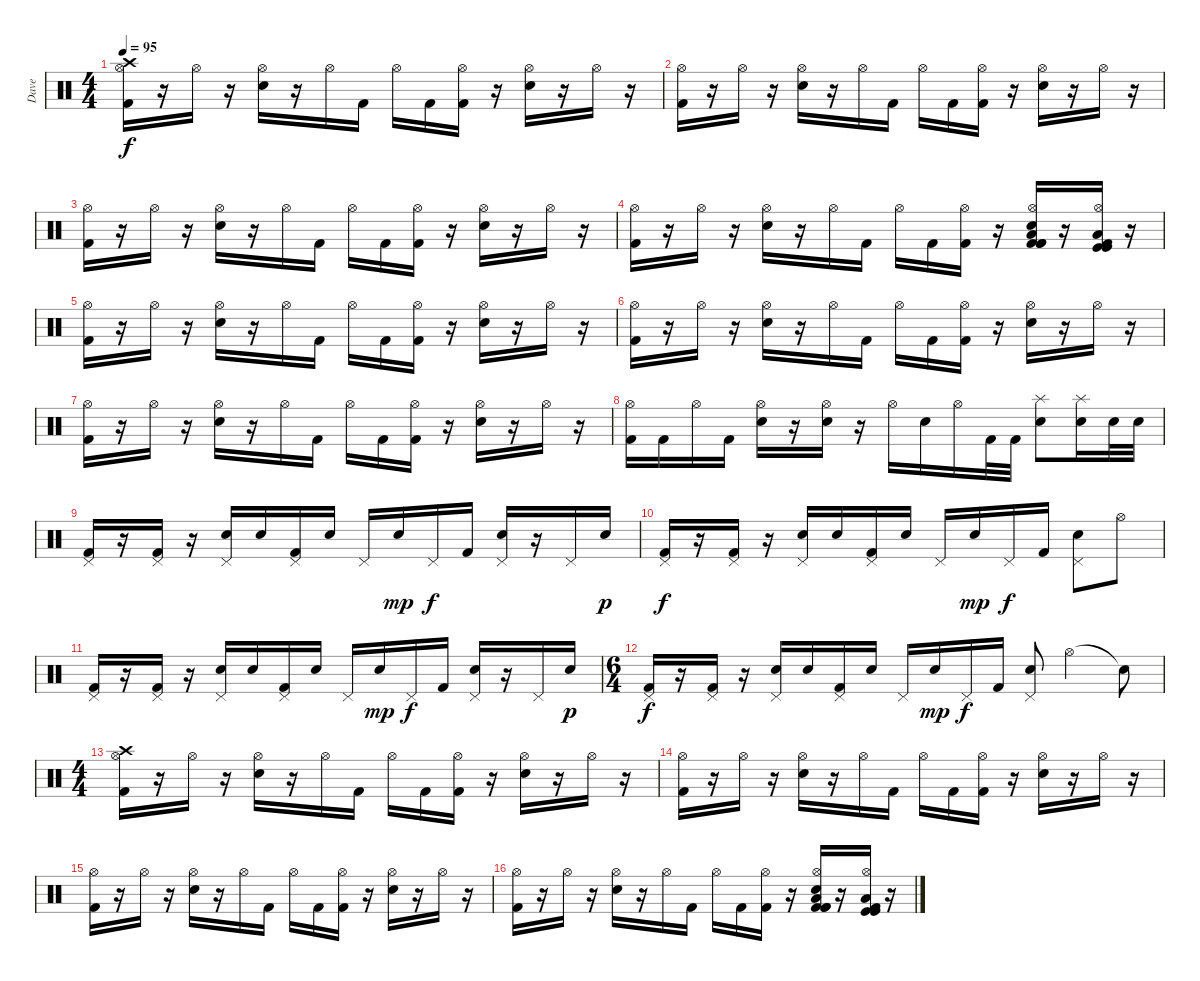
\track ("Dave" "Dave") {instrument percussion}
\staff {score}
\articulation defaults
\ts (4 4)
\tempo 95
\clef neutral
\ks c
("Kick (hit) 2" "Hi-Hat (open)" "Crash high (hit)").16{dy f} r.16 "Hi-Hat (open)".16 r.16 ("Snare (hit) 2" "Hi-Hat (open)").16 r.16 "Hi-Hat (open)".16 "Kick (hit) 2".16 "Hi-Hat (open)".16 "Kick (hit) 2".16 ("Kick (hit) 2" "Hi-Hat (open)").16 r.16 ("Snare (hit) 2" "Hi-Hat (open)").16 r.16 "Hi-Hat (open)".16 r.16 |
("Kick (hit) 2" "Hi-Hat (open)").16 r.16 "Hi-Hat (open)".16 r.16 ("Snare (hit) 2" "Hi-Hat (open)").16 r.16 "Hi-Hat (open)".16 "Kick (hit) 2".16 "Hi-Hat (open)".16 "Kick (hit) 2".16 ("Kick (hit) 2" "Hi-Hat (open)").16 r.16 ("Snare (hit) 2" "Hi-Hat (open)").16 r.16 "Hi-Hat (open)".16 r.16 |
("Kick (hit) 2" "Hi-Hat (open)").16 r.16 "Hi-Hat (open)".16 r.16 ("Snare (hit) 2" "Hi-Hat (open)").16 r.16 "Hi-Hat (open)".16 "Kick (hit) 2".16 "Hi-Hat (open)".16 "Kick (hit) 2".16 ("Kick (hit) 2" "Hi-Hat (open)").16 r.16 ("Snare (hit) 2" "Hi-Hat (open)").16 r.16 "Hi-Hat (open)".16 r.16 |
("Kick (hit) 2" "Hi-Hat (open)").16 r.16 "Hi-Hat (open)".16 r.16 ("Snare (hit) 2" "Hi-Hat (open)").16 r.16 "Hi-Hat (open)".16 "Kick (hit) 2".16 "Hi-Hat (open)".16 "Kick (hit) 2".16 ("Kick (hit) 2" "Hi-Hat (open)").16 r.16 ("Snare (hit) 2" "Hi-Hat (open)" "Low Tom (hit)" "Kick (hit) 2" "Kick (hit) 2" "Kick (hit) 2").16 r.16 ("Hi-Hat (open)" "Low Tom (hit)" "Kick (hit)" "Kick (hit)" "Kick (hit) 2").16 r.16 |
("Kick (hit) 2" "Hi-Hat (open)").16 r.16 "Hi-Hat (open)".16 r.16 ("Snare (hit) 2" "Hi-Hat (open)").16 r.16 "Hi-Hat (open)".16 "Kick (hit) 2".16 "Hi-Hat (open)".16 "Kick (hit) 2".16 ("Kick (hit) 2" "Hi-Hat (open)").16 r.16 ("Snare (hit) 2" "Hi-Hat (open)").16 r.16 "Hi-Hat (open)".16 r.16 |
("Kick (hit) 2" "Hi-Hat (open)").16 r.16 "Hi-Hat (open)".16 r.16 ("Snare (hit) 2" "Hi-Hat (open)").16 r.16 "Hi-Hat (open)".16 "Kick (hit) 2".16 "Hi-Hat (open)".16 "Kick (hit) 2".16 ("Kick (hit) 2" "Hi-Hat (open)").16 r.16 ("Snare (hit) 2" "Hi-Hat (open)").16 r.16 "Hi-Hat (open)".16 r.16 |
("Kick (hit) 2" "Hi-Hat (open)").16 r.16 "Hi-Hat (open)".16 r.16 ("Snare (hit) 2" "Hi-Hat (open)").16 r.16 "Hi-Hat (open)".16 "Kick (hit) 2".16 "Hi-Hat (open)".16 "Kick (hit) 2".16 ("Kick (hit) 2" "Hi-Hat (open)").16 r.16 ("Snare (hit) 2" "Hi-Hat (open)").16 r.16 "Hi-Hat (open)".16 r.16 |
("Kick (hit) 2" "Hi-Hat (open)").16 "Kick (hit) 2".16 "Hi-Hat (open)".16 "Kick (hit) 2".16 ("Snare (hit) 2" "Hi-Hat (open)").16 r.16 ("Snare (hit) 2" "Hi-Hat (open)").16 r.16 "Hi-Hat (open)".16 "Snare (hit) 2".16 "Hi-Hat (open)".16 "Kick (hit) 2".32 "Kick (hit) 2".32 ("Snare (hit) 2" "Splash (hit)").8 ("Snare (hit) 2" "Splash (hit)").16 "Snare (hit) 2".32 "Snare (hit) 2".32 |
("Kick (hit) 2" "Pedal Hi-Hat (hit)").16 r.16 ("Kick (hit) 2" "Pedal Hi-Hat (hit)").16 r.16 ("Snare (hit) 2" "Pedal Hi-Hat (hit)").16 "Snare (hit) 2".16 ("Kick (hit) 2" "Pedal Hi-Hat (hit)").16 "Snare (hit) 2".16 "Pedal Hi-Hat (hit)".16 "Snare (hit) 2".16{dy mp} "Pedal Hi-Hat (hit)".16{dy f} "Kick (hit) 2".16 ("Snare (hit) 2" "Pedal Hi-Hat (hit)").16 r.16 "Pedal Hi-Hat (hit)".16 "Snare (hit) 2".16{dy p} |
("Kick (hit) 2" "Pedal Hi-Hat (hit)").16{dy f} r.16 ("Kick (hit) 2" "Pedal Hi-Hat (hit)").16 r.16 ("Snare (hit) 2" "Pedal Hi-Hat (hit)").16 "Snare (hit) 2".16 ("Kick (hit) 2" "Pedal Hi-Hat (hit)").16 "Snare (hit) 2".16 "Pedal Hi-Hat (hit)".16 "Snare (hit) 2".16{dy mp} "Pedal Hi-Hat (hit)".16{dy f} "Kick (hit) 2".16 ("Snare (hit) 2" "Pedal Hi-Hat (hit)").8 "Hi-Hat (open)".8 |
("Kick (hit) 2" "Pedal Hi-Hat (hit)").16 r.16 ("Kick (hit) 2" "Pedal Hi-Hat (hit)").16 r.16 ("Snare (hit) 2" "Pedal Hi-Hat (hit)").16 "Snare (hit) 2".16 ("Kick (hit) 2" "Pedal Hi-Hat (hit)").16 "Snare (hit) 2".16 "Pedal Hi-Hat (hit)".16 "Snare (hit) 2".16{dy mp} "Pedal Hi-Hat (hit)".16{dy f} "Kick (hit) 2".16 ("Snare (hit) 2" "Pedal Hi-Hat (hit)").16 r.16 "Pedal Hi-Hat (hit)".16 "Snare (hit) 2".16{dy p} |
\ts (6 4)
("Kick (hit) 2" "Pedal Hi-Hat (hit)").16{dy f} r.16 ("Kick (hit) 2" "Pedal Hi-Hat (hit)").16 r.16 ("Snare (hit) 2" "Pedal Hi-Hat (hit)").16 "Snare (hit) 2".16 ("Kick (hit) 2" "Pedal Hi-Hat (hit)").16 "Snare (hit) 2".16 "Pedal Hi-Hat (hit)".16 "Snare (hit) 2".16{dy mp} "Pedal Hi-Hat (hit)".16{dy f} "Kick (hit) 2".16 ("Snare (hit) 2" "Pedal Hi-Hat (hit)").8 "Hi-Hat (open)".2 "Snare (hit)"{t}.8 |
\ts (4 4)
("Kick (hit) 2" "Hi-Hat (open)" "Crash high (hit)").16 r.16 "Hi-Hat (open)".16 r.16 ("Snare (hit) 2" "Hi-Hat (open)").16 r.16 "Hi-Hat (open)".16 "Kick (hit) 2".16 "Hi-Hat (open)".16 "Kick (hit) 2".16 ("Kick (hit) 2" "Hi-Hat (open)").16 r.16 ("Snare (hit) 2" "Hi-Hat (open)").16 r.16 "Hi-Hat (open)".16 r.16 |
("Kick (hit) 2" "Hi-Hat (open)").16 r.16 "Hi-Hat (open)".16 r.16 ("Snare (hit) 2" "Hi-Hat (open)").16 r.16 "Hi-Hat (open)".16 "Kick (hit) 2".16 "Hi-Hat (open)".16 "Kick (hit) 2".16 ("Kick (hit) 2" "Hi-Hat (open)").16 r.16 ("Snare (hit) 2" "Hi-Hat (open)").16 r.16 "Hi-Hat (open)".16 r.16 |
("Kick (hit) 2" "Hi-Hat (open)").16 r.16 "Hi-Hat (open)".16 r.16 ("Snare (hit) 2" "Hi-Hat (open)").16 r.16 "Hi-Hat (open)".16 "Kick (hit) 2".16 "Hi-Hat (open)".16 "Kick (hit) 2".16 ("Kick (hit) 2" "Hi-Hat (open)").16 r.16 ("Snare (hit) 2" "Hi-Hat (open)").16 r.16 "Hi-Hat (open)".16 r.16 |
("Kick (hit) 2" "Hi-Hat (open)").16 r.16 "Hi-Hat (open)".16 r.16 ("Snare (hit) 2" "Hi-Hat (open)").16 r.16 "Hi-Hat (open)".16 "Kick (hit) 2".16 "Hi-Hat (open)".16 "Kick (hit) 2".16 ("Kick (hit) 2" "Hi-Hat (open)").16 r.16 ("Snare (hit) 2" "Hi-Hat (open)" "Low Tom (hit)" "Kick (hit) 2" "Kick (hit) 2" "Kick (hit) 2").16 r.16 ("Hi-Hat (open)" "Low Tom (hit)" "Kick (hit)" "Kick (hit)" "Kick (hit) 2").16 r.16
